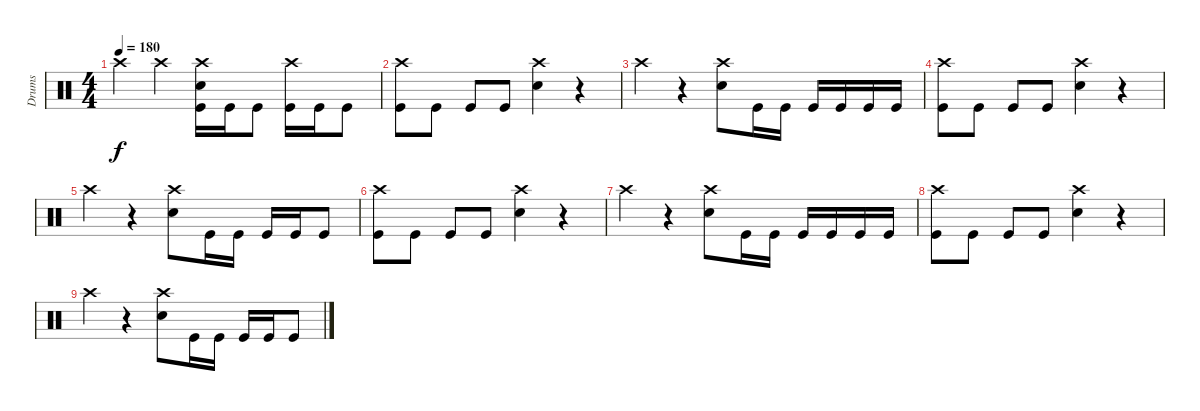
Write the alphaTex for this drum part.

\track ("Drums" "Drums") {instrument percussion}
\staff {score}
\articulation defaults
\ts (4 4)
\tempo 180
\clef neutral
\ks c "Crash high (hit)".4{dy f} "Crash high (hit)".4
("Crash high (hit)" "Snare (hit) 2" "Kick (hit)").16 "Kick (hit)".16 "Kick (hit)".8 ("Crash high (hit)" "Kick (hit)").16 "Kick (hit)".16 "Kick (hit)".8 |
("Kick (hit)" "Crash high (hit)").8 "Kick (hit)".8 "Kick (hit)".8 "Kick (hit)".8 ("Crash high (hit)" "Snare (hit) 2").4 r.4 |
"Crash high (hit)".4 r.4 ("Crash high (hit)" "Snare (hit) 2").8 "Kick (hit)".16 "Kick (hit)".16 "Kick (hit)".16 "Kick (hit)".16 "Kick (hit)".16 "Kick (hit)".16 |
("Kick (hit)" "Crash high (hit)").8 "Kick (hit)".8 "Kick (hit)".8 "Kick (hit)".8 ("Crash high (hit)" "Snare (hit) 2").4 r.4 |
"Crash high (hit)".4 r.4 ("Crash high (hit)" "Snare (hit) 2").8 "Kick (hit)".16 "Kick (hit)".16 "Kick (hit)".16 "Kick (hit)".16 "Kick (hit)".8 |
("Kick (hit)" "Crash high (hit)").8 "Kick (hit)".8 "Kick (hit)".8 "Kick (hit)".8 ("Crash high (hit)" "Snare (hit) 2").4 r.4 |
"Crash high (hit)".4 r.4 ("Crash high (hit)" "Snare (hit) 2").8 "Kick (hit)".16 "Kick (hit)".16 "Kick (hit)".16 "Kick (hit)".16 "Kick (hit)".16 "Kick (hit)".16 |
("Kick (hit)" "Crash high (hit)").8 "Kick (hit)".8 "Kick (hit)".8 "Kick (hit)".8 ("Crash high (hit)" "Snare (hit) 2").4 r.4 |
"Crash high (hit)".4 r.4 ("Crash high (hit)" "Snare (hit) 2").8 "Kick (hit)".16 "Kick (hit)".16 "Kick (hit)".16 "Kick (hit)".16 "Kick (hit)".8
